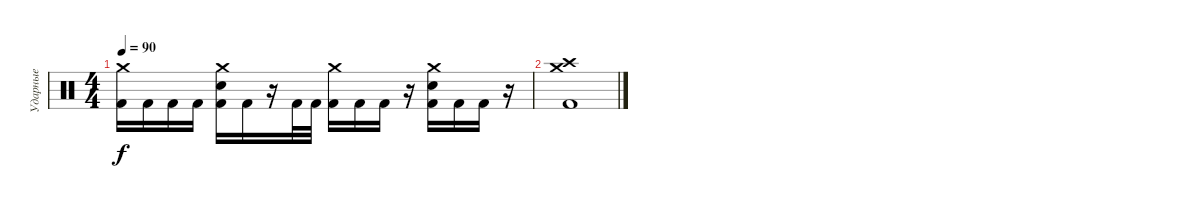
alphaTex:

\track ("Ударные" "Ударные") {instrument percussion}
\staff {score}
\articulation defaults
\ts (4 4)
\tempo 90
\clef neutral
\ks c
("Crash medium (hit)" "Kick (hit) 2").16{dy f} "Kick (hit) 2".16 "Kick (hit) 2".16 "Kick (hit) 2".16 ("Crash medium (hit)" "Electric Snare (hit)" "Kick (hit) 2").16 "Kick (hit) 2".16 r.16 "Kick (hit) 2".32 "Kick (hit) 2".32 ("Crash medium (hit)" "Kick (hit) 2").16 "Kick (hit) 2".16 "Kick (hit) 2".16 r.16 ("Crash medium (hit)" "Electric Snare (hit)" "Kick (hit) 2").16 "Kick (hit) 2".16 "Kick (hit) 2".16 r.16 |
("Crash high (hit)" "Crash medium (hit)" "Kick (hit) 2").1
